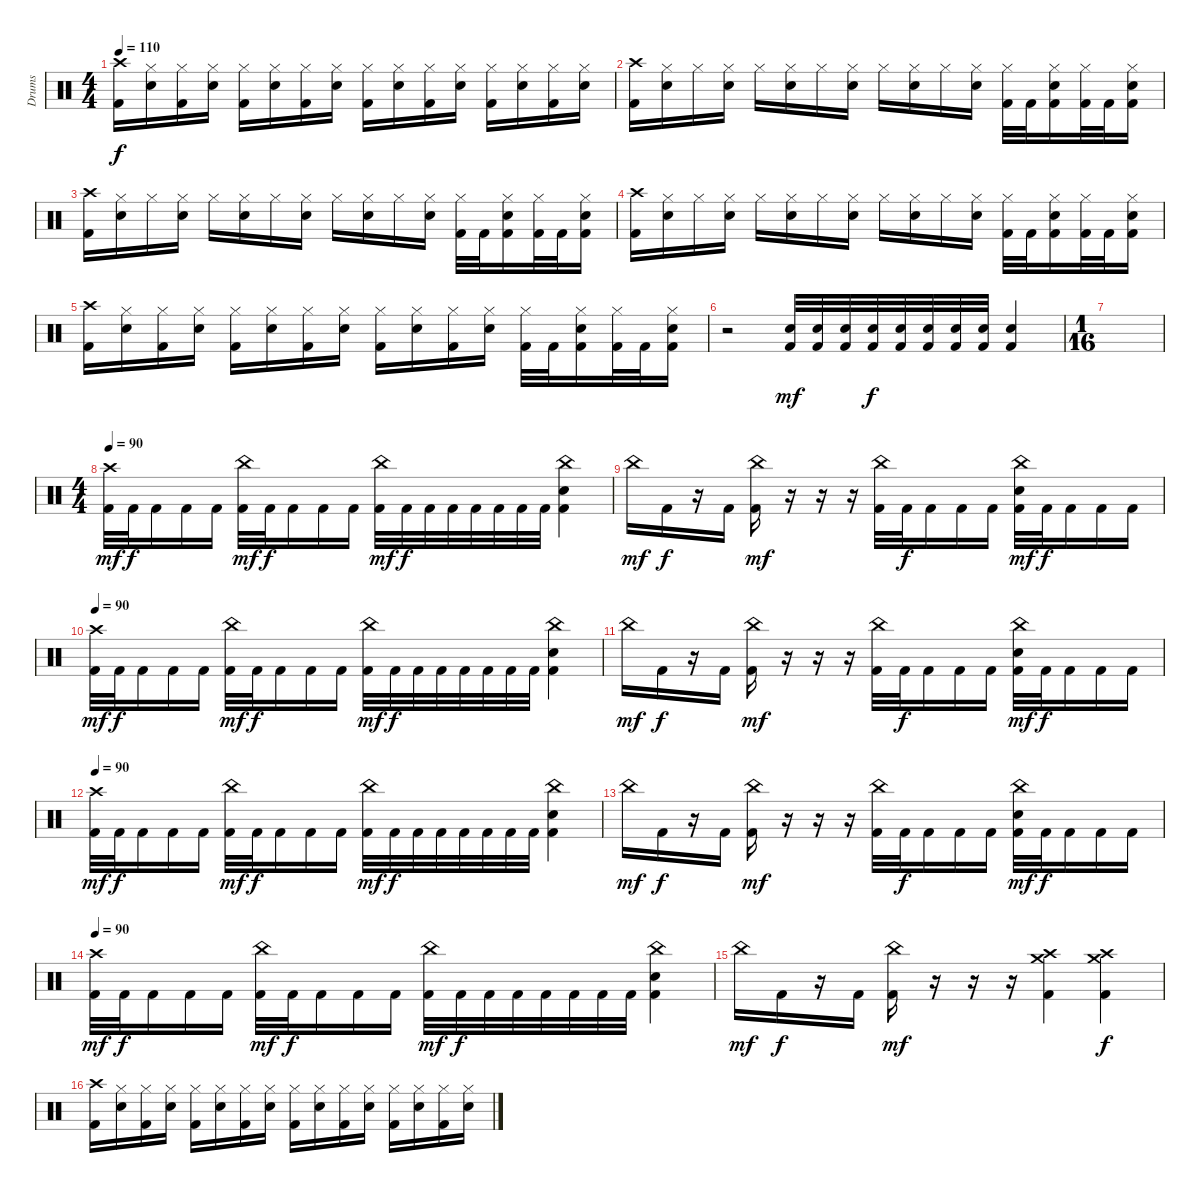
\track ("Drums" "Drums") {instrument percussion}
\staff {score}
\articulation defaults
\ts (4 4)
\tempo 110
\clef neutral
\ks c
("Crash high (hit)" "Kick (hit) 2").16{dy f} ("Hi-Hat (closed)" "Electric Snare (hit)").16 ("Hi-Hat (closed)" "Kick (hit) 2").16 ("Hi-Hat (closed)" "Electric Snare (hit)").16 ("Hi-Hat (closed)" "Kick (hit) 2").16 ("Hi-Hat (closed)" "Electric Snare (hit)").16 ("Hi-Hat (closed)" "Kick (hit) 2").16 ("Hi-Hat (closed)" "Electric Snare (hit)").16 ("Hi-Hat (closed)" "Kick (hit) 2").16 ("Hi-Hat (closed)" "Electric Snare (hit)").16 ("Hi-Hat (closed)" "Kick (hit) 2").16 ("Hi-Hat (closed)" "Electric Snare (hit)").16 ("Hi-Hat (closed)" "Kick (hit) 2").16 ("Hi-Hat (closed)" "Electric Snare (hit)").16 ("Hi-Hat (closed)" "Kick (hit) 2").16 ("Hi-Hat (closed)" "Electric Snare (hit)").16 |
("Crash high (hit)" "Kick (hit) 2").16 ("Hi-Hat (closed)" "Electric Snare (hit)").16 "Hi-Hat (closed)".16 ("Hi-Hat (closed)" "Electric Snare (hit)").16 "Hi-Hat (closed)".16 ("Hi-Hat (closed)" "Electric Snare (hit)").16 "Hi-Hat (closed)".16 ("Hi-Hat (closed)" "Electric Snare (hit)").16 "Hi-Hat (closed)".16 ("Hi-Hat (closed)" "Electric Snare (hit)").16 "Hi-Hat (closed)".16 ("Hi-Hat (closed)" "Electric Snare (hit)").16 ("Hi-Hat (closed)" "Kick (hit) 2").32 "Kick (hit) 2".32 ("Hi-Hat (closed)" "Electric Snare (hit)" "Kick (hit) 2").16 ("Hi-Hat (closed)" "Kick (hit) 2").32 "Kick (hit) 2".32 ("Hi-Hat (closed)" "Electric Snare (hit)" "Kick (hit) 2").16 |
("Crash high (hit)" "Kick (hit) 2").16 ("Hi-Hat (closed)" "Electric Snare (hit)").16 "Hi-Hat (closed)".16 ("Hi-Hat (closed)" "Electric Snare (hit)").16 "Hi-Hat (closed)".16 ("Hi-Hat (closed)" "Electric Snare (hit)").16 "Hi-Hat (closed)".16 ("Hi-Hat (closed)" "Electric Snare (hit)").16 "Hi-Hat (closed)".16 ("Hi-Hat (closed)" "Electric Snare (hit)").16 "Hi-Hat (closed)".16 ("Hi-Hat (closed)" "Electric Snare (hit)").16 ("Hi-Hat (closed)" "Kick (hit) 2").32 "Kick (hit) 2".32 ("Hi-Hat (closed)" "Electric Snare (hit)" "Kick (hit) 2").16 ("Hi-Hat (closed)" "Kick (hit) 2").32 "Kick (hit) 2".32 ("Hi-Hat (closed)" "Electric Snare (hit)" "Kick (hit) 2").16 |
("Crash high (hit)" "Kick (hit) 2").16 ("Hi-Hat (closed)" "Electric Snare (hit)").16 "Hi-Hat (closed)".16 ("Hi-Hat (closed)" "Electric Snare (hit)").16 "Hi-Hat (closed)".16 ("Hi-Hat (closed)" "Electric Snare (hit)").16 "Hi-Hat (closed)".16 ("Hi-Hat (closed)" "Electric Snare (hit)").16 "Hi-Hat (closed)".16 ("Hi-Hat (closed)" "Electric Snare (hit)").16 "Hi-Hat (closed)".16 ("Hi-Hat (closed)" "Electric Snare (hit)").16 ("Hi-Hat (closed)" "Kick (hit) 2").32 "Kick (hit) 2".32 ("Hi-Hat (closed)" "Electric Snare (hit)" "Kick (hit) 2").16 ("Hi-Hat (closed)" "Kick (hit) 2").32 "Kick (hit) 2".32 ("Hi-Hat (closed)" "Electric Snare (hit)" "Kick (hit) 2").16 |
("Crash high (hit)" "Kick (hit) 2").16 ("Hi-Hat (closed)" "Electric Snare (hit)").16 ("Hi-Hat (closed)" "Kick (hit) 2").16 ("Hi-Hat (closed)" "Electric Snare (hit)").16 ("Hi-Hat (closed)" "Kick (hit) 2").16 ("Hi-Hat (closed)" "Electric Snare (hit)").16 ("Hi-Hat (closed)" "Kick (hit) 2").16 ("Hi-Hat (closed)" "Electric Snare (hit)").16 ("Hi-Hat (closed)" "Kick (hit) 2").16 ("Hi-Hat (closed)" "Electric Snare (hit)").16 ("Hi-Hat (closed)" "Kick (hit) 2").16 ("Hi-Hat (closed)" "Electric Snare (hit)").16 ("Hi-Hat (closed)" "Kick (hit) 2").32 "Kick (hit) 2".32 ("Hi-Hat (closed)" "Electric Snare (hit)" "Kick (hit) 2").16 ("Hi-Hat (closed)" "Kick (hit) 2").32 "Kick (hit) 2".32 ("Hi-Hat (closed)" "Electric Snare (hit)" "Kick (hit) 2").16 |
r.2 ("Electric Snare (hit)" "Kick (hit) 2").32{dy mf} ("Electric Snare (hit)" "Kick (hit) 2").32 ("Electric Snare (hit)" "Kick (hit) 2").32 ("Electric Snare (hit)" "Kick (hit) 2").32{dy f} ("Electric Snare (hit)" "Kick (hit) 2").32 ("Electric Snare (hit)" "Kick (hit) 2").32 ("Electric Snare (hit)" "Kick (hit) 2").32 ("Electric Snare (hit)" "Kick (hit) 2").32 ("Electric Snare (hit)" "Kick (hit) 2").4 |
\ts (1 16)
|
\ts (4 4)
\tempo 90
("Crash high (hit)" "Kick (hit) 2").32{dy mf} "Kick (hit) 2".32{dy f} "Kick (hit) 2".16 "Kick (hit) 2".16 "Kick (hit) 2".16 ("China (hit)" "Kick (hit) 2").32{dy mf} "Kick (hit) 2".32{dy f} "Kick (hit) 2".16 "Kick (hit) 2".16 "Kick (hit) 2".16 ("China (hit)" "Kick (hit) 2").32{dy mf} "Kick (hit) 2".32{dy f} "Kick (hit) 2".32 "Kick (hit) 2".32 "Kick (hit) 2".32 "Kick (hit) 2".32 "Kick (hit) 2".32 "Kick (hit) 2".32 ("China (hit)" "Electric Snare (hit)" "Kick (hit) 2").4 |
"China (hit)".16{dy mf} "Kick (hit) 2".16{dy f} r.16 "Kick (hit) 2".16 ("China (hit)" "Kick (hit) 2").16{dy mf} r.16 r.16 r.16 ("China (hit)" "Kick (hit) 2").32 "Kick (hit) 2".32{dy f} "Kick (hit) 2".16 "Kick (hit) 2".16 "Kick (hit) 2".16 ("China (hit)" "Electric Snare (hit)" "Kick (hit) 2").32{dy mf} "Kick (hit) 2".32{dy f} "Kick (hit) 2".16 "Kick (hit) 2".16 "Kick (hit) 2".16 |
\tempo 90
("Crash high (hit)" "Kick (hit) 2").32{dy mf} "Kick (hit) 2".32{dy f} "Kick (hit) 2".16 "Kick (hit) 2".16 "Kick (hit) 2".16 ("China (hit)" "Kick (hit) 2").32{dy mf} "Kick (hit) 2".32{dy f} "Kick (hit) 2".16 "Kick (hit) 2".16 "Kick (hit) 2".16 ("China (hit)" "Kick (hit) 2").32{dy mf} "Kick (hit) 2".32{dy f} "Kick (hit) 2".32 "Kick (hit) 2".32 "Kick (hit) 2".32 "Kick (hit) 2".32 "Kick (hit) 2".32 "Kick (hit) 2".32 ("China (hit)" "Electric Snare (hit)" "Kick (hit) 2").4 |
"China (hit)".16{dy mf} "Kick (hit) 2".16{dy f} r.16 "Kick (hit) 2".16 ("China (hit)" "Kick (hit) 2").16{dy mf} r.16 r.16 r.16 ("China (hit)" "Kick (hit) 2").32 "Kick (hit) 2".32{dy f} "Kick (hit) 2".16 "Kick (hit) 2".16 "Kick (hit) 2".16 ("China (hit)" "Electric Snare (hit)" "Kick (hit) 2").32{dy mf} "Kick (hit) 2".32{dy f} "Kick (hit) 2".16 "Kick (hit) 2".16 "Kick (hit) 2".16 |
\tempo 90
("Crash high (hit)" "Kick (hit) 2").32{dy mf} "Kick (hit) 2".32{dy f} "Kick (hit) 2".16 "Kick (hit) 2".16 "Kick (hit) 2".16 ("China (hit)" "Kick (hit) 2").32{dy mf} "Kick (hit) 2".32{dy f} "Kick (hit) 2".16 "Kick (hit) 2".16 "Kick (hit) 2".16 ("China (hit)" "Kick (hit) 2").32{dy mf} "Kick (hit) 2".32{dy f} "Kick (hit) 2".32 "Kick (hit) 2".32 "Kick (hit) 2".32 "Kick (hit) 2".32 "Kick (hit) 2".32 "Kick (hit) 2".32 ("China (hit)" "Electric Snare (hit)" "Kick (hit) 2").4 |
"China (hit)".16{dy mf} "Kick (hit) 2".16{dy f} r.16 "Kick (hit) 2".16 ("China (hit)" "Kick (hit) 2").16{dy mf} r.16 r.16 r.16 ("China (hit)" "Kick (hit) 2").32 "Kick (hit) 2".32{dy f} "Kick (hit) 2".16 "Kick (hit) 2".16 "Kick (hit) 2".16 ("China (hit)" "Electric Snare (hit)" "Kick (hit) 2").32{dy mf} "Kick (hit) 2".32{dy f} "Kick (hit) 2".16 "Kick (hit) 2".16 "Kick (hit) 2".16 |
\tempo 90
("Crash high (hit)" "Kick (hit) 2").32{dy mf} "Kick (hit) 2".32{dy f} "Kick (hit) 2".16 "Kick (hit) 2".16 "Kick (hit) 2".16 ("China (hit)" "Kick (hit) 2").32{dy mf} "Kick (hit) 2".32{dy f} "Kick (hit) 2".16 "Kick (hit) 2".16 "Kick (hit) 2".16 ("China (hit)" "Kick (hit) 2").32{dy mf} "Kick (hit) 2".32{dy f} "Kick (hit) 2".32 "Kick (hit) 2".32 "Kick (hit) 2".32 "Kick (hit) 2".32 "Kick (hit) 2".32 "Kick (hit) 2".32 ("China (hit)" "Electric Snare (hit)" "Kick (hit) 2").4 |
"China (hit)".16{dy mf} "Kick (hit) 2".16{dy f} r.16 "Kick (hit) 2".16 ("China (hit)" "Kick (hit) 2").16{dy mf} r.16 r.16 r.16 ("Crash high (hit)" "Crash medium (hit)" "Kick (hit) 2").4 ("Crash high (hit)" "Crash medium (hit)" "Kick (hit) 2").4{dy f} |
("Crash high (hit)" "Kick (hit) 2").16 ("Hi-Hat (closed)" "Electric Snare (hit)").16 ("Hi-Hat (closed)" "Kick (hit) 2").16 ("Hi-Hat (closed)" "Electric Snare (hit)").16 ("Hi-Hat (closed)" "Kick (hit) 2").16 ("Hi-Hat (closed)" "Electric Snare (hit)").16 ("Hi-Hat (closed)" "Kick (hit) 2").16 ("Hi-Hat (closed)" "Electric Snare (hit)").16 ("Hi-Hat (closed)" "Kick (hit) 2").16 ("Hi-Hat (closed)" "Electric Snare (hit)").16 ("Hi-Hat (closed)" "Kick (hit) 2").16 ("Hi-Hat (closed)" "Electric Snare (hit)").16 ("Hi-Hat (closed)" "Kick (hit) 2").16 ("Hi-Hat (closed)" "Electric Snare (hit)").16 ("Hi-Hat (closed)" "Kick (hit) 2").16 ("Hi-Hat (closed)" "Electric Snare (hit)").16
